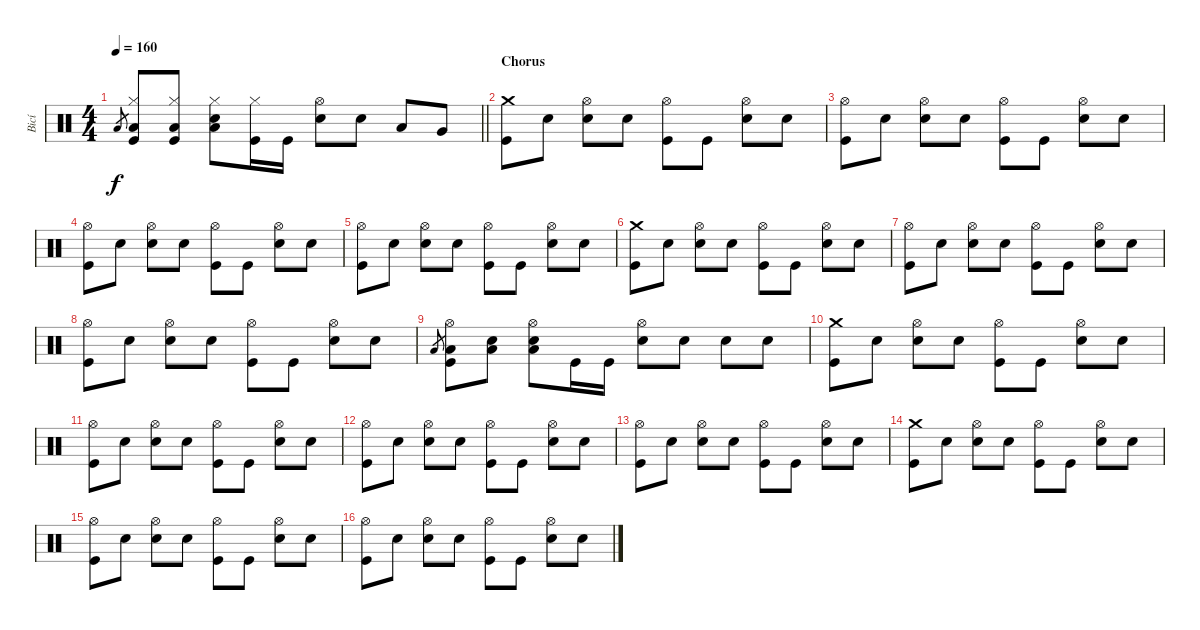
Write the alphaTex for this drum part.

\track ("Bicí" "Bicí") {instrument percussion}
\staff {score}
\articulation defaults
\ts (4 4)
\tempo 160
\clef neutral
\barLineRight lightlight
\ks c "Low Tom (hit)".8{gr dy f}
("Hi-Hat (closed)" "Low Tom (hit)" "Kick (hit)").8 ("Hi-Hat (closed)" "Low Tom (hit)" "Kick (hit)").8 ("Hi-Hat (closed)" "Low Tom (hit)" "Electric Snare (hit)").8 ("Hi-Hat (closed)" "Kick (hit)").16 "Kick (hit)".16 ("Hi-Hat (open)" "Electric Snare (hit)").8 "Electric Snare (hit)".8 "Low Tom (hit)".8 "Very Low Tom (hit)".8 |
\section ("" "Chorus")
("Crash medium (hit)" "Kick (hit)").8 "Snare (hit)".8 ("Hi-Hat (open)" "Electric Snare (hit)").8 "Snare (hit)".8 ("Hi-Hat (open)" "Kick (hit)").8 "Kick (hit)".8 ("Hi-Hat (open)" "Electric Snare (hit)").8 "Snare (hit)".8 |
("Hi-Hat (open)" "Kick (hit)").8 "Snare (hit)".8 ("Hi-Hat (open)" "Electric Snare (hit)").8 "Snare (hit)".8 ("Hi-Hat (open)" "Kick (hit)").8 "Kick (hit)".8 ("Hi-Hat (open)" "Electric Snare (hit)").8 "Snare (hit)".8 |
("Hi-Hat (open)" "Kick (hit)").8 "Snare (hit)".8 ("Hi-Hat (open)" "Electric Snare (hit)").8 "Snare (hit)".8 ("Hi-Hat (open)" "Kick (hit)").8 "Kick (hit)".8 ("Hi-Hat (open)" "Electric Snare (hit)").8 "Snare (hit)".8 |
("Hi-Hat (open)" "Kick (hit)").8 "Snare (hit)".8 ("Hi-Hat (open)" "Electric Snare (hit)").8 "Snare (hit)".8 ("Hi-Hat (open)" "Kick (hit)").8 "Kick (hit)".8 ("Hi-Hat (open)" "Electric Snare (hit)").8 "Snare (hit)".8 |
("Crash medium (hit)" "Kick (hit)").8 "Snare (hit)".8 ("Hi-Hat (open)" "Electric Snare (hit)").8 "Snare (hit)".8 ("Hi-Hat (open)" "Kick (hit)").8 "Kick (hit)".8 ("Hi-Hat (open)" "Electric Snare (hit)").8 "Snare (hit)".8 |
("Hi-Hat (open)" "Kick (hit)").8 "Snare (hit)".8 ("Hi-Hat (open)" "Electric Snare (hit)").8 "Snare (hit)".8 ("Hi-Hat (open)" "Kick (hit)").8 "Kick (hit)".8 ("Hi-Hat (open)" "Electric Snare (hit)").8 "Snare (hit)".8 |
("Hi-Hat (open)" "Kick (hit)").8 "Snare (hit)".8 ("Hi-Hat (open)" "Electric Snare (hit)").8 "Snare (hit)".8 ("Hi-Hat (open)" "Kick (hit)").8 "Kick (hit)".8 ("Hi-Hat (open)" "Electric Snare (hit)").8 "Snare (hit)".8 |
"Low Tom (hit)".8{gr} ("Hi-Hat (open)" "Low Tom (hit)" "Kick (hit)").8 ("Low Tom (hit)" "Snare (hit)").8 ("Hi-Hat (open)" "Low Tom (hit)" "Electric Snare (hit)").8 "Kick (hit)".16 "Kick (hit)".16 ("Hi-Hat (open)" "Electric Snare (hit)").8 "Electric Snare (hit)".8 "Electric Snare (hit)".8 "Electric Snare (hit)".8 |
("Crash medium (hit)" "Kick (hit)").8 "Snare (hit)".8 ("Hi-Hat (open)" "Electric Snare (hit)").8 "Snare (hit)".8 ("Hi-Hat (open)" "Kick (hit)").8 "Kick (hit)".8 ("Hi-Hat (open)" "Electric Snare (hit)").8 "Snare (hit)".8 |
("Hi-Hat (open)" "Kick (hit)").8 "Snare (hit)".8 ("Hi-Hat (open)" "Electric Snare (hit)").8 "Snare (hit)".8 ("Hi-Hat (open)" "Kick (hit)").8 "Kick (hit)".8 ("Hi-Hat (open)" "Electric Snare (hit)").8 "Snare (hit)".8 |
("Hi-Hat (open)" "Kick (hit)").8 "Snare (hit)".8 ("Hi-Hat (open)" "Electric Snare (hit)").8 "Snare (hit)".8 ("Hi-Hat (open)" "Kick (hit)").8 "Kick (hit)".8 ("Hi-Hat (open)" "Electric Snare (hit)").8 "Snare (hit)".8 |
("Hi-Hat (open)" "Kick (hit)").8 "Snare (hit)".8 ("Hi-Hat (open)" "Electric Snare (hit)").8 "Snare (hit)".8 ("Hi-Hat (open)" "Kick (hit)").8 "Kick (hit)".8 ("Hi-Hat (open)" "Electric Snare (hit)").8 "Snare (hit)".8 |
("Crash medium (hit)" "Kick (hit)").8 "Snare (hit)".8 ("Hi-Hat (open)" "Electric Snare (hit)").8 "Snare (hit)".8 ("Hi-Hat (open)" "Kick (hit)").8 "Kick (hit)".8 ("Hi-Hat (open)" "Electric Snare (hit)").8 "Snare (hit)".8 |
("Hi-Hat (open)" "Kick (hit)").8 "Snare (hit)".8 ("Hi-Hat (open)" "Electric Snare (hit)").8 "Snare (hit)".8 ("Hi-Hat (open)" "Kick (hit)").8 "Kick (hit)".8 ("Hi-Hat (open)" "Electric Snare (hit)").8 "Snare (hit)".8 |
("Hi-Hat (open)" "Kick (hit)").8 "Snare (hit)".8 ("Hi-Hat (open)" "Electric Snare (hit)").8 "Snare (hit)".8 ("Hi-Hat (open)" "Kick (hit)").8 "Kick (hit)".8 ("Hi-Hat (open)" "Electric Snare (hit)").8 "Snare (hit)".8
